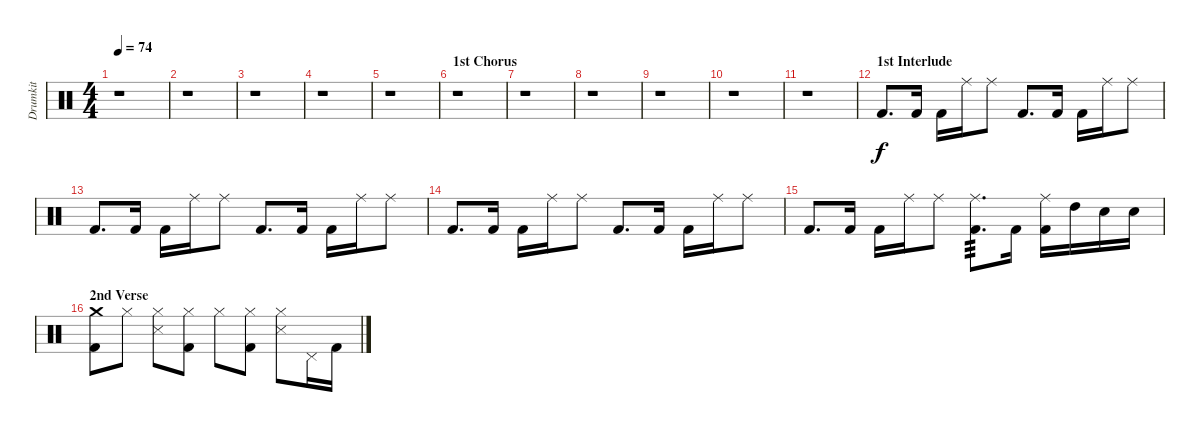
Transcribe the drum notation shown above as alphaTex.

\track ("Drumkit" "Drumkit") {instrument percussion}
\staff {score}
\articulation defaults
\ts (4 4)
\tempo 74
\clef neutral
\ks c
r.1{dy f} |
r.1 |
r.1 |
r.1 |
r.1 |
\section ("" "1st Chorus")
r.1 |
r.1 |
r.1 |
r.1 |
r.1 |
r.1 |
\section ("" "1st Interlude")
"Kick (hit) 2".8{d} "Kick (hit) 2".16 "Kick (hit) 2".16 "Ride (middle)".16 "Ride (middle)".8 "Kick (hit) 2".8{d} "Kick (hit) 2".16 "Kick (hit) 2".16 "Ride (middle)".16 "Ride (middle)".8 |
"Kick (hit) 2".8{d} "Kick (hit) 2".16 "Kick (hit) 2".16 "Ride (middle)".16 "Ride (middle)".8 "Kick (hit) 2".8{d} "Kick (hit) 2".16 "Kick (hit) 2".16 "Ride (middle)".16 "Ride (middle)".8 |
"Kick (hit) 2".8{d} "Kick (hit) 2".16 "Kick (hit) 2".16 "Ride (middle)".16 "Ride (middle)".8 "Kick (hit) 2".8{d} "Kick (hit) 2".16 "Kick (hit) 2".16 "Ride (middle)".16 "Ride (middle)".8 |
"Kick (hit) 2".8{d} "Kick (hit) 2".16 "Kick (hit) 2".16 "Ride (middle)".16 "Ride (middle)".8 ("Ride (middle)" "Kick (hit) 2").8{d tp 3} "Kick (hit) 2".16 ("Ride (middle)" "Kick (hit) 2").16 "High Tom (hit)".16 "Snare (hit) 2".16 "Snare (hit) 2".16 |
\section ("" "2nd Verse")
("Crash medium (hit)" "Kick (hit) 2").8 "Hi-Hat (closed)".8 ("Hi-Hat (closed)" "Snare (side stick) 3").8 ("Hi-Hat (closed)" "Kick (hit) 2").8 "Hi-Hat (closed)".8 ("Hi-Hat (closed)" "Kick (hit) 2").8 ("Hi-Hat (closed)" "Snare (side stick) 3").8 "Pedal Hi-Hat (hit)".16 "Kick (hit) 2".16
